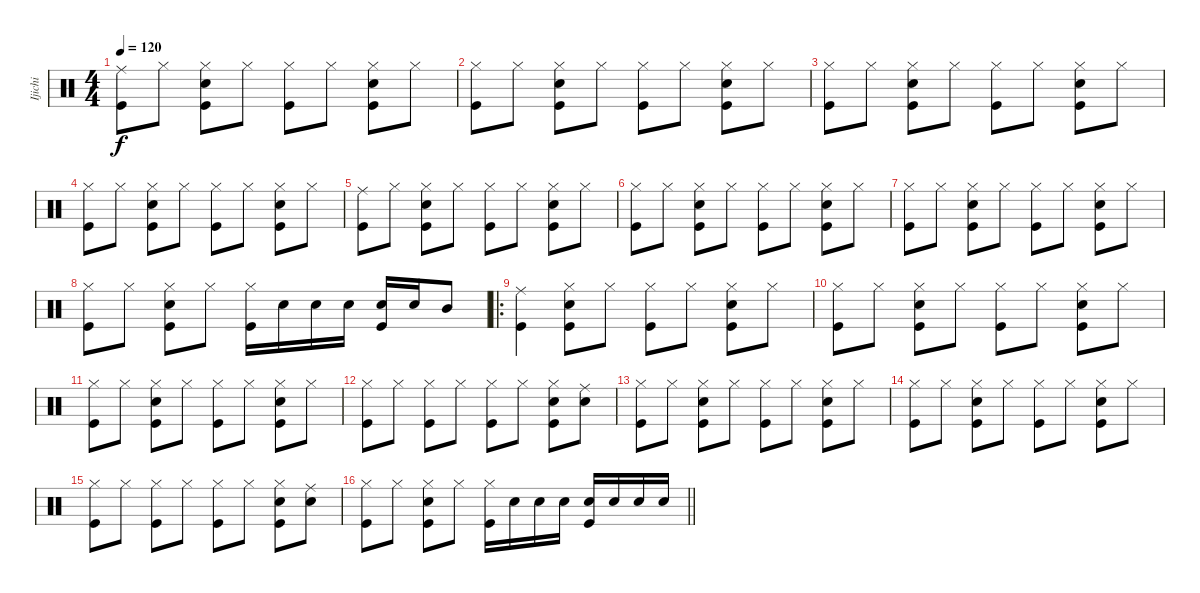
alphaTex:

\track ("Ijichi" "Ijichi") {instrument percussion}
\staff {score}
\articulation defaults
\ts (4 4)
\tempo 120
\clef neutral
\ks c
("Ride (middle)" "Kick (hit)").8{dy f} "Hi-Hat (closed)".8 ("Hi-Hat (closed)" "Snare (hit) 2" "Kick (hit)").8 "Hi-Hat (closed)".8 ("Hi-Hat (closed)" "Kick (hit)").8 "Hi-Hat (closed)".8 ("Hi-Hat (closed)" "Snare (hit) 2" "Kick (hit)").8 "Hi-Hat (closed)".8 |
("Hi-Hat (closed)" "Kick (hit)").8 "Hi-Hat (closed)".8 ("Hi-Hat (closed)" "Snare (hit) 2" "Kick (hit)").8 "Hi-Hat (closed)".8 ("Hi-Hat (closed)" "Kick (hit)").8 "Hi-Hat (closed)".8 ("Hi-Hat (closed)" "Snare (hit) 2" "Kick (hit)").8 "Hi-Hat (closed)".8 |
("Hi-Hat (closed)" "Kick (hit)").8 "Hi-Hat (closed)".8 ("Hi-Hat (closed)" "Snare (hit) 2" "Kick (hit)").8 "Hi-Hat (closed)".8 ("Hi-Hat (closed)" "Kick (hit)").8 "Hi-Hat (closed)".8 ("Hi-Hat (closed)" "Snare (hit) 2" "Kick (hit)").8 "Hi-Hat (closed)".8 |
("Hi-Hat (closed)" "Kick (hit)").8 "Hi-Hat (closed)".8 ("Hi-Hat (closed)" "Snare (hit) 2" "Kick (hit)").8 "Hi-Hat (closed)".8 ("Hi-Hat (closed)" "Kick (hit)").8 "Hi-Hat (closed)".8 ("Hi-Hat (closed)" "Snare (hit) 2" "Kick (hit)").8 "Hi-Hat (closed)".8 |
("Ride (middle)" "Kick (hit)").8 "Hi-Hat (closed)".8 ("Hi-Hat (closed)" "Snare (hit) 2" "Kick (hit)").8 "Hi-Hat (closed)".8 ("Hi-Hat (closed)" "Kick (hit)").8 "Hi-Hat (closed)".8 ("Hi-Hat (closed)" "Snare (hit) 2" "Kick (hit)").8 "Hi-Hat (closed)".8 |
("Hi-Hat (closed)" "Kick (hit)").8 "Hi-Hat (closed)".8 ("Hi-Hat (closed)" "Snare (hit) 2" "Kick (hit)").8 "Hi-Hat (closed)".8 ("Hi-Hat (closed)" "Kick (hit)").8 "Hi-Hat (closed)".8 ("Hi-Hat (closed)" "Snare (hit) 2" "Kick (hit)").8 "Hi-Hat (closed)".8 |
("Hi-Hat (closed)" "Kick (hit)").8 "Hi-Hat (closed)".8 ("Hi-Hat (closed)" "Snare (hit) 2" "Kick (hit)").8 "Hi-Hat (closed)".8 ("Hi-Hat (closed)" "Kick (hit)").8 "Hi-Hat (closed)".8 ("Hi-Hat (closed)" "Snare (hit) 2" "Kick (hit)").8 "Hi-Hat (closed)".8 |
("Hi-Hat (closed)" "Kick (hit)").8 "Hi-Hat (closed)".8 ("Hi-Hat (closed)" "Snare (hit) 2" "Kick (hit)").8 "Hi-Hat (closed)".8 ("Hi-Hat (closed)" "Kick (hit)").16 "Snare (hit) 2".16 "Snare (hit) 2".16 "Snare (hit) 2".16 ("Snare (hit) 2" "Kick (hit)").16 "Snare (hit) 2".16 "Mid Tom (hit)".8 |
\ro
("Ride (middle)" "Kick (hit)").4 ("Hi-Hat (closed)" "Snare (hit) 2" "Kick (hit)").8 "Hi-Hat (closed)".8 ("Hi-Hat (closed)" "Kick (hit)").8 "Hi-Hat (closed)".8 ("Hi-Hat (closed)" "Snare (hit) 2" "Kick (hit)").8 "Hi-Hat (closed)".8 |
("Hi-Hat (closed)" "Kick (hit)").8 "Hi-Hat (closed)".8 ("Hi-Hat (closed)" "Snare (hit) 2" "Kick (hit)").8 "Hi-Hat (closed)".8 ("Hi-Hat (closed)" "Kick (hit)").8 "Hi-Hat (closed)".8 ("Hi-Hat (closed)" "Snare (hit) 2" "Kick (hit)").8 "Hi-Hat (closed)".8 |
("Hi-Hat (closed)" "Kick (hit)").8 "Hi-Hat (closed)".8 ("Hi-Hat (closed)" "Snare (hit) 2" "Kick (hit)").8 "Hi-Hat (closed)".8 ("Hi-Hat (closed)" "Kick (hit)").8 "Hi-Hat (closed)".8 ("Hi-Hat (closed)" "Snare (hit) 2" "Kick (hit)").8 "Hi-Hat (closed)".8 |
("Hi-Hat (closed)" "Kick (hit)").8 "Hi-Hat (closed)".8 ("Hi-Hat (closed)" "Kick (hit)").8 "Hi-Hat (closed)".8 ("Hi-Hat (closed)" "Kick (hit)").8 "Hi-Hat (closed)".8 ("Hi-Hat (closed)" "Snare (hit) 2" "Kick (hit)").8 ("Ride (middle)" "Snare (hit) 2").8 |
("Hi-Hat (closed)" "Kick (hit)").8 "Hi-Hat (closed)".8 ("Hi-Hat (closed)" "Snare (hit) 2" "Kick (hit)").8 "Hi-Hat (closed)".8 ("Hi-Hat (closed)" "Kick (hit)").8 "Hi-Hat (closed)".8 ("Hi-Hat (closed)" "Snare (hit) 2" "Kick (hit)").8 "Hi-Hat (closed)".8 |
("Hi-Hat (closed)" "Kick (hit)").8 "Hi-Hat (closed)".8 ("Hi-Hat (closed)" "Snare (hit) 2" "Kick (hit)").8 "Hi-Hat (closed)".8 ("Hi-Hat (closed)" "Kick (hit)").8 "Hi-Hat (closed)".8 ("Hi-Hat (closed)" "Snare (hit) 2" "Kick (hit)").8 "Hi-Hat (closed)".8 |
("Hi-Hat (closed)" "Kick (hit)").8 "Hi-Hat (closed)".8 ("Hi-Hat (closed)" "Kick (hit)").8 "Hi-Hat (closed)".8 ("Hi-Hat (closed)" "Kick (hit)").8 "Hi-Hat (closed)".8 ("Hi-Hat (closed)" "Snare (hit) 2" "Kick (hit)").8 ("Ride (middle)" "Snare (hit) 2").8 |
\barLineRight lightlight
("Hi-Hat (closed)" "Kick (hit)").8 "Hi-Hat (closed)".8 ("Hi-Hat (closed)" "Snare (hit) 2" "Kick (hit)").8 "Hi-Hat (closed)".8 ("Hi-Hat (closed)" "Kick (hit)").16 "Snare (hit) 2".16 "Snare (hit) 2".16 "Snare (hit) 2".16 ("Snare (hit) 2" "Kick (hit)").16 "Snare (hit) 2".16 "Snare (hit) 2".16 "Snare (hit) 2".16
